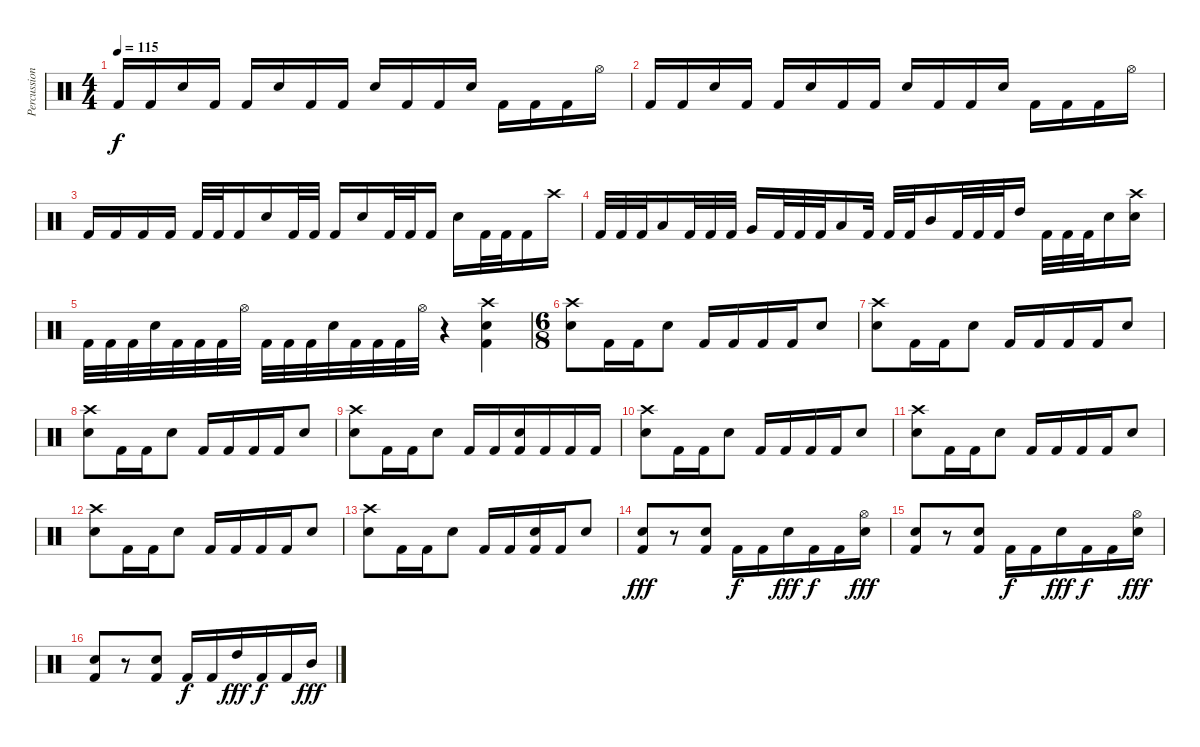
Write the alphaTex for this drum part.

\track ("Percussioni" "Percussion") {instrument percussion}
\staff {score}
\articulation defaults
\ts (4 4)
\tempo 115
\clef neutral
\ks c "Kick (hit) 2".16{dy f} "Kick (hit) 2".16 "Electric Snare (hit)".16 "Kick (hit) 2".16 "Kick (hit) 2".16 "Electric Snare (hit)".16 "Kick (hit) 2".16 "Kick (hit) 2".16 "Electric Snare (hit)".16 "Kick (hit) 2".16 "Kick (hit) 2".16 "Electric Snare (hit)".16 "Kick (hit) 2".16 "Kick (hit) 2".16 "Kick (hit) 2".16 "Hi-Hat (open)".16
|
"Kick (hit) 2".16 "Kick (hit) 2".16 "Electric Snare (hit)".16 "Kick (hit) 2".16 "Kick (hit) 2".16 "Electric Snare (hit)".16 "Kick (hit) 2".16 "Kick (hit) 2".16 "Electric Snare (hit)".16 "Kick (hit) 2".16 "Kick (hit) 2".16 "Electric Snare (hit)".16 "Kick (hit) 2".16 "Kick (hit) 2".16 "Kick (hit) 2".16 "Hi-Hat (open)".16 |
"Kick (hit) 2".16 "Kick (hit) 2".16 "Kick (hit) 2".16 "Kick (hit) 2".16 "Kick (hit) 2".32 "Kick (hit) 2".32 "Kick (hit) 2".16 "Electric Snare (hit)".16 "Kick (hit) 2".32 "Kick (hit) 2".32 "Kick (hit) 2".16 "Electric Snare (hit)".16 "Kick (hit) 2".32 "Kick (hit) 2".32 "Kick (hit) 2".16 "Electric Snare (hit)".16 "Kick (hit) 2".32 "Kick (hit) 2".32 "Kick (hit) 2".16 "Crash high (hit)".16 |
"Kick (hit) 2".32 "Kick (hit) 2".32 "Kick (hit) 2".32 "Low Floor Tom (hit)".16 "Kick (hit) 2".32 "Kick (hit) 2".32 "Kick (hit) 2".32 "Very Low Tom (hit)".16 "Kick (hit) 2".32 "Kick (hit) 2".32 "Kick (hit) 2".32 "Low Tom (hit)".16 "Kick (hit) 2".32 "Kick (hit) 2".32 "Kick (hit) 2".32 "Mid Tom (hit)".16 "Kick (hit) 2".32 "Kick (hit) 2".32 "Kick (hit) 2".32 "High Tom (hit)".16 "Kick (hit) 2".32 "Kick (hit) 2".32 "Kick (hit) 2".32 "Electric Snare (hit)".16 ("Crash high (hit)" "Electric Snare (hit)").16 |
"Kick (hit) 2".32 "Kick (hit) 2".32 "Kick (hit) 2".32 "Electric Snare (hit)".32 "Kick (hit) 2".32 "Kick (hit) 2".32 "Kick (hit) 2".32 "Hi-Hat (open)".32 "Kick (hit) 2".32 "Kick (hit) 2".32 "Kick (hit) 2".32 "Electric Snare (hit)".32 "Kick (hit) 2".32 "Kick (hit) 2".32 "Kick (hit) 2".32 "Hi-Hat (open)".32 r.4 ("Crash high (hit)" "Electric Snare (hit)" "Kick (hit) 2").4 |
\ts (6 8)
("Crash high (hit)" "Electric Snare (hit)").8 "Kick (hit) 2".16 "Kick (hit) 2".16 "Electric Snare (hit)".8 "Kick (hit) 2".16 "Kick (hit) 2".16 "Kick (hit) 2".16 "Kick (hit) 2".16 "Electric Snare (hit)".8 |
("Crash high (hit)" "Electric Snare (hit)").8 "Kick (hit) 2".16 "Kick (hit) 2".16 "Electric Snare (hit)".8 "Kick (hit) 2".16 "Kick (hit) 2".16 "Kick (hit) 2".16 "Kick (hit) 2".16 "Electric Snare (hit)".8 |
("Crash high (hit)" "Electric Snare (hit)").8 "Kick (hit) 2".16 "Kick (hit) 2".16 "Electric Snare (hit)".8 "Kick (hit) 2".16 "Kick (hit) 2".16 "Kick (hit) 2".16 "Kick (hit) 2".16 "Electric Snare (hit)".8 |
("Crash high (hit)" "Electric Snare (hit)").8 "Kick (hit) 2".16 "Kick (hit) 2".16 "Electric Snare (hit)".8 "Kick (hit) 2".16 "Kick (hit) 2".16 ("Electric Snare (hit)" "Kick (hit) 2").16 "Kick (hit) 2".16 "Kick (hit) 2".16 "Kick (hit) 2".16 |
("Crash high (hit)" "Electric Snare (hit)").8 "Kick (hit) 2".16 "Kick (hit) 2".16 "Electric Snare (hit)".8 "Kick (hit) 2".16 "Kick (hit) 2".16 "Kick (hit) 2".16 "Kick (hit) 2".16 "Electric Snare (hit)".8 |
("Crash high (hit)" "Electric Snare (hit)").8 "Kick (hit) 2".16 "Kick (hit) 2".16 "Electric Snare (hit)".8 "Kick (hit) 2".16 "Kick (hit) 2".16 "Kick (hit) 2".16 "Kick (hit) 2".16 "Electric Snare (hit)".8 |
("Crash high (hit)" "Electric Snare (hit)").8 "Kick (hit) 2".16 "Kick (hit) 2".16 "Electric Snare (hit)".8 "Kick (hit) 2".16 "Kick (hit) 2".16 "Kick (hit) 2".16 "Kick (hit) 2".16 "Electric Snare (hit)".8 |
("Crash high (hit)" "Electric Snare (hit)").8 "Kick (hit) 2".16 "Kick (hit) 2".16 "Electric Snare (hit)".8 "Kick (hit) 2".16 "Kick (hit) 2".16 ("Electric Snare (hit)" "Kick (hit) 2").16 "Kick (hit) 2".16 "Electric Snare (hit)".8 |
("Electric Snare (hit)" "Kick (hit) 2").8{dy fff} r.8 ("Electric Snare (hit)" "Kick (hit) 2").8 "Kick (hit) 2".16{dy f} "Kick (hit) 2".16 "Electric Snare (hit)".16{dy fff} "Kick (hit) 2".16{dy f} "Kick (hit) 2".16 ("Hi-Hat (open)" "Electric Snare (hit)").16{dy fff} |
("Electric Snare (hit)" "Kick (hit) 2").8 r.8 ("Electric Snare (hit)" "Kick (hit) 2").8 "Kick (hit) 2".16{dy f} "Kick (hit) 2".16 "Electric Snare (hit)".16{dy fff} "Kick (hit) 2".16{dy f} "Kick (hit) 2".16 ("Hi-Hat (open)" "Electric Snare (hit)").16{dy fff} |
("Electric Snare (hit)" "Kick (hit) 2").8 r.8 ("Electric Snare (hit)" "Kick (hit) 2").8 "Kick (hit) 2".16{dy f} "Kick (hit) 2".16 "High Tom (hit)".16{dy fff} "Kick (hit) 2".16{dy f} "Kick (hit) 2".16 "Mid Tom (hit)".16{dy fff}
